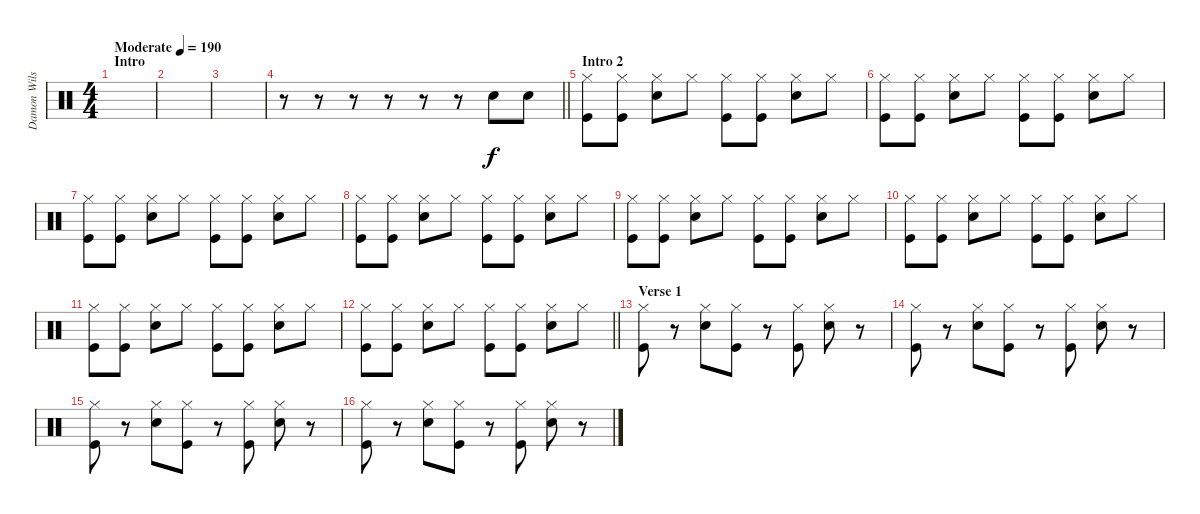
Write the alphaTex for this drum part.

\track ("Damon Wilson" "Damon Wils") {instrument percussion}
\staff {score}
\articulation defaults
\ts (4 4)
\section ("" "Intro")
\tempo (190 "Moderate")
\clef neutral
\ks c
|
|
|
\barLineRight lightlight
r.8 r.8 r.8 r.8 r.8 r.8 "Snare (hit) 2".8 "Snare (hit) 2".8 |
\section ("" "Intro 2")
("Hi-Hat (closed)" "Kick (hit)").8 ("Hi-Hat (closed)" "Kick (hit)").8 ("Hi-Hat (closed)" "Snare (hit) 2").8 "Hi-Hat (closed)".8 ("Hi-Hat (closed)" "Kick (hit)").8 ("Hi-Hat (closed)" "Kick (hit)").8 ("Hi-Hat (closed)" "Snare (hit) 2").8 "Hi-Hat (closed)".8 |
("Hi-Hat (closed)" "Kick (hit)").8 ("Hi-Hat (closed)" "Kick (hit)").8 ("Hi-Hat (closed)" "Snare (hit) 2").8 "Hi-Hat (closed)".8 ("Hi-Hat (closed)" "Kick (hit)").8 ("Hi-Hat (closed)" "Kick (hit)").8 ("Hi-Hat (closed)" "Snare (hit) 2").8 "Hi-Hat (closed)".8 |
("Hi-Hat (closed)" "Kick (hit)").8 ("Hi-Hat (closed)" "Kick (hit)").8 ("Hi-Hat (closed)" "Snare (hit) 2").8 "Hi-Hat (closed)".8 ("Hi-Hat (closed)" "Kick (hit)").8 ("Hi-Hat (closed)" "Kick (hit)").8 ("Hi-Hat (closed)" "Snare (hit) 2").8 "Hi-Hat (closed)".8 |
("Hi-Hat (closed)" "Kick (hit)").8 ("Hi-Hat (closed)" "Kick (hit)").8 ("Hi-Hat (closed)" "Snare (hit) 2").8 "Hi-Hat (closed)".8 ("Hi-Hat (closed)" "Kick (hit)").8 ("Hi-Hat (closed)" "Kick (hit)").8 ("Hi-Hat (closed)" "Snare (hit) 2").8 "Hi-Hat (closed)".8 |
("Hi-Hat (closed)" "Kick (hit)").8 ("Hi-Hat (closed)" "Kick (hit)").8 ("Hi-Hat (closed)" "Snare (hit) 2").8 "Hi-Hat (closed)".8 ("Hi-Hat (closed)" "Kick (hit)").8 ("Hi-Hat (closed)" "Kick (hit)").8 ("Hi-Hat (closed)" "Snare (hit) 2").8 "Hi-Hat (closed)".8 |
("Hi-Hat (closed)" "Kick (hit)").8 ("Hi-Hat (closed)" "Kick (hit)").8 ("Hi-Hat (closed)" "Snare (hit) 2").8 "Hi-Hat (closed)".8 ("Hi-Hat (closed)" "Kick (hit)").8 ("Hi-Hat (closed)" "Kick (hit)").8 ("Hi-Hat (closed)" "Snare (hit) 2").8 "Hi-Hat (closed)".8 |
("Hi-Hat (closed)" "Kick (hit)").8 ("Hi-Hat (closed)" "Kick (hit)").8 ("Hi-Hat (closed)" "Snare (hit) 2").8 "Hi-Hat (closed)".8 ("Hi-Hat (closed)" "Kick (hit)").8 ("Hi-Hat (closed)" "Kick (hit)").8 ("Hi-Hat (closed)" "Snare (hit) 2").8 "Hi-Hat (closed)".8 |
\barLineRight lightlight
("Hi-Hat (closed)" "Kick (hit)").8 ("Hi-Hat (closed)" "Kick (hit)").8 ("Hi-Hat (closed)" "Snare (hit) 2").8 "Hi-Hat (closed)".8 ("Hi-Hat (closed)" "Kick (hit)").8 ("Hi-Hat (closed)" "Kick (hit)").8 ("Hi-Hat (closed)" "Snare (hit) 2").8 "Hi-Hat (closed)".8 |
\section ("" "Verse 1")
("Hi-Hat (closed)" "Kick (hit)").8 r.8 ("Hi-Hat (closed)" "Snare (hit) 2").8 ("Hi-Hat (closed)" "Kick (hit)").8 r.8 ("Hi-Hat (closed)" "Kick (hit)").8 ("Hi-Hat (closed)" "Snare (hit) 2").8 r.8 |
("Hi-Hat (closed)" "Kick (hit)").8 r.8 ("Hi-Hat (closed)" "Snare (hit) 2").8 ("Hi-Hat (closed)" "Kick (hit)").8 r.8 ("Hi-Hat (closed)" "Kick (hit)").8 ("Hi-Hat (closed)" "Snare (hit) 2").8 r.8 |
("Hi-Hat (closed)" "Kick (hit)").8 r.8 ("Hi-Hat (closed)" "Snare (hit) 2").8 ("Hi-Hat (closed)" "Kick (hit)").8 r.8 ("Hi-Hat (closed)" "Kick (hit)").8 ("Hi-Hat (closed)" "Snare (hit) 2").8 r.8 |
("Hi-Hat (closed)" "Kick (hit)").8 r.8 ("Hi-Hat (closed)" "Snare (hit) 2").8 ("Hi-Hat (closed)" "Kick (hit)").8 r.8 ("Hi-Hat (closed)" "Kick (hit)").8 ("Hi-Hat (closed)" "Snare (hit) 2").8 r.8
